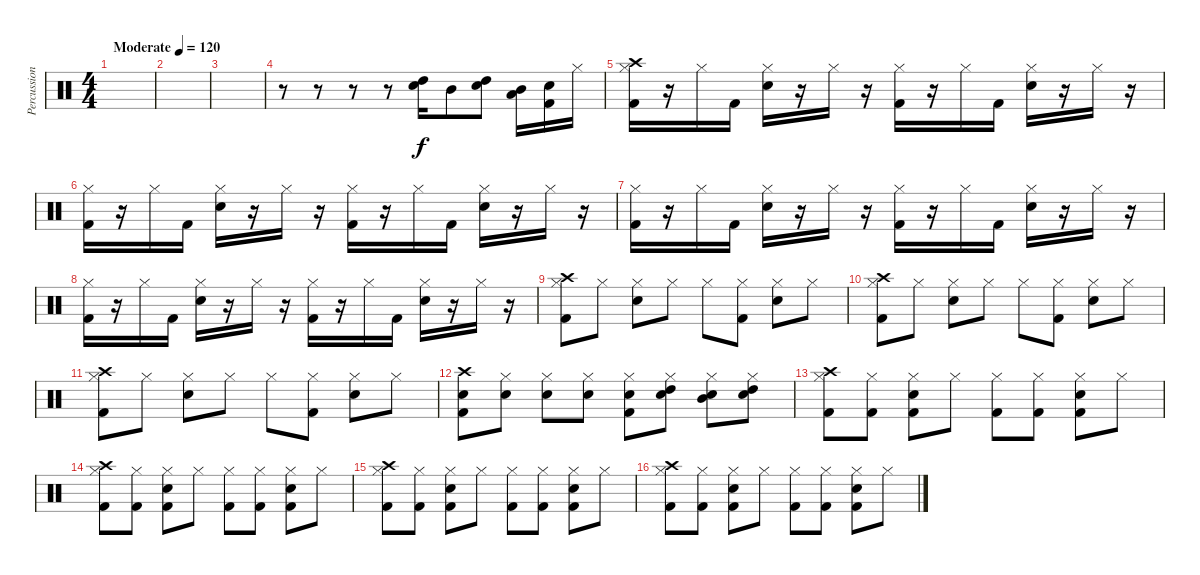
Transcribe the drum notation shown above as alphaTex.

\track ("Percussion" "Percussion") {instrument percussion}
\staff {score}
\articulation defaults
\ts (4 4)
\tempo (120 "Moderate")
\clef neutral
\ks c
|
|
|
r.8 r.8 r.8 r.8 ("High Tom (hit)" "Snare (hit) 2").16 "Mid Tom (hit)".8 ("High Tom (hit)" "Snare (hit) 2").8 ("Mid Tom (hit)" "Low Floor Tom (hit)").16 ("Kick (hit) 2" "Snare (hit) 2").16 "Hi-Hat (closed)".16 |
("Kick (hit) 2" "Hi-Hat (closed)" "Crash high (hit)").16 r.16 "Hi-Hat (closed)".16 "Kick (hit) 2".16 ("Snare (hit) 2" "Hi-Hat (closed)").16 r.16 "Hi-Hat (closed)".16 r.16 ("Kick (hit) 2" "Hi-Hat (closed)").16 r.16 "Hi-Hat (closed)".16 "Kick (hit) 2".16 ("Snare (hit) 2" "Hi-Hat (closed)").16 r.16 "Hi-Hat (closed)".16 r.16 |
("Kick (hit) 2" "Hi-Hat (closed)").16 r.16 "Hi-Hat (closed)".16 "Kick (hit) 2".16 ("Snare (hit) 2" "Hi-Hat (closed)").16 r.16 "Hi-Hat (closed)".16 r.16 ("Kick (hit) 2" "Hi-Hat (closed)").16 r.16 "Hi-Hat (closed)".16 "Kick (hit) 2".16 ("Snare (hit) 2" "Hi-Hat (closed)").16 r.16 "Hi-Hat (closed)".16 r.16 |
("Kick (hit) 2" "Hi-Hat (closed)").16 r.16 "Hi-Hat (closed)".16 "Kick (hit) 2".16 ("Snare (hit) 2" "Hi-Hat (closed)").16 r.16 "Hi-Hat (closed)".16 r.16 ("Kick (hit) 2" "Hi-Hat (closed)").16 r.16 "Hi-Hat (closed)".16 "Kick (hit) 2".16 ("Snare (hit) 2" "Hi-Hat (closed)").16 r.16 "Hi-Hat (closed)".16 r.16 |
("Kick (hit) 2" "Hi-Hat (closed)").16 r.16 "Hi-Hat (closed)".16 "Kick (hit) 2".16 ("Snare (hit) 2" "Hi-Hat (closed)").16 r.16 "Hi-Hat (closed)".16 r.16 ("Kick (hit) 2" "Hi-Hat (closed)").16 r.16 "Hi-Hat (closed)".16 "Kick (hit) 2".16 ("Snare (hit) 2" "Hi-Hat (closed)").16 r.16 "Hi-Hat (closed)".16 r.16 |
("Kick (hit) 2" "Hi-Hat (closed)" "Crash high (hit)").8 "Hi-Hat (closed)".8 ("Snare (hit) 2" "Hi-Hat (closed)").8 "Hi-Hat (closed)".8 "Hi-Hat (closed)".8 ("Kick (hit) 2" "Hi-Hat (closed)").8 ("Snare (hit) 2" "Hi-Hat (closed)").8 "Hi-Hat (closed)".8 |
("Kick (hit) 2" "Hi-Hat (closed)" "Crash high (hit)").8 "Hi-Hat (closed)".8 ("Snare (hit) 2" "Hi-Hat (closed)").8 "Hi-Hat (closed)".8 "Hi-Hat (closed)".8 ("Kick (hit) 2" "Hi-Hat (closed)").8 ("Snare (hit) 2" "Hi-Hat (closed)").8 "Hi-Hat (closed)".8 |
("Kick (hit) 2" "Hi-Hat (closed)" "Crash high (hit)").8 "Hi-Hat (closed)".8 ("Snare (hit) 2" "Hi-Hat (closed)").8 "Hi-Hat (closed)".8 "Hi-Hat (closed)".8 ("Kick (hit) 2" "Hi-Hat (closed)").8 ("Snare (hit) 2" "Hi-Hat (closed)").8 "Hi-Hat (closed)".8 |
("Kick (hit) 2" "Snare (hit) 2" "Crash high (hit)").8 ("Snare (hit) 2" "Hi-Hat (closed)").8 ("Snare (hit) 2" "Hi-Hat (closed)").8 ("Snare (hit) 2" "Hi-Hat (closed)").8 ("Kick (hit) 2" "Snare (hit) 2" "Hi-Hat (closed)").8 ("High Tom (hit)" "Snare (hit) 2" "Hi-Hat (closed)").8 ("Mid Tom (hit)" "Snare (hit) 2" "Hi-Hat (closed)").8 ("High Tom (hit)" "Snare (hit) 2" "Hi-Hat (closed)").8 |
("Kick (hit) 2" "Hi-Hat (closed)" "Crash high (hit)").8 ("Kick (hit) 2" "Hi-Hat (closed)").8 ("Kick (hit) 2" "Snare (hit) 2" "Hi-Hat (closed)").8 "Hi-Hat (closed)".8 ("Kick (hit) 2" "Hi-Hat (closed)").8 ("Kick (hit) 2" "Hi-Hat (closed)").8 ("Kick (hit) 2" "Snare (hit) 2" "Hi-Hat (closed)").8 "Hi-Hat (closed)".8 |
("Kick (hit) 2" "Hi-Hat (closed)" "Crash high (hit)").8 ("Kick (hit) 2" "Hi-Hat (closed)").8 ("Kick (hit) 2" "Snare (hit) 2" "Hi-Hat (closed)").8 "Hi-Hat (closed)".8 ("Kick (hit) 2" "Hi-Hat (closed)").8 ("Kick (hit) 2" "Hi-Hat (closed)").8 ("Kick (hit) 2" "Snare (hit) 2" "Hi-Hat (closed)").8 "Hi-Hat (closed)".8 |
("Kick (hit) 2" "Hi-Hat (closed)" "Crash high (hit)").8 ("Kick (hit) 2" "Hi-Hat (closed)").8 ("Kick (hit) 2" "Snare (hit) 2" "Hi-Hat (closed)").8 "Hi-Hat (closed)".8 ("Kick (hit) 2" "Hi-Hat (closed)").8 ("Kick (hit) 2" "Hi-Hat (closed)").8 ("Kick (hit) 2" "Snare (hit) 2" "Hi-Hat (closed)").8 "Hi-Hat (closed)".8 |
("Kick (hit) 2" "Hi-Hat (closed)" "Crash high (hit)").8 ("Kick (hit) 2" "Hi-Hat (closed)").8 ("Kick (hit) 2" "Snare (hit) 2" "Hi-Hat (closed)").8 "Hi-Hat (closed)".8 ("Kick (hit) 2" "Hi-Hat (closed)").8 ("Kick (hit) 2" "Hi-Hat (closed)").8 ("Kick (hit) 2" "Snare (hit) 2" "Hi-Hat (closed)").8 "Hi-Hat (closed)".8
